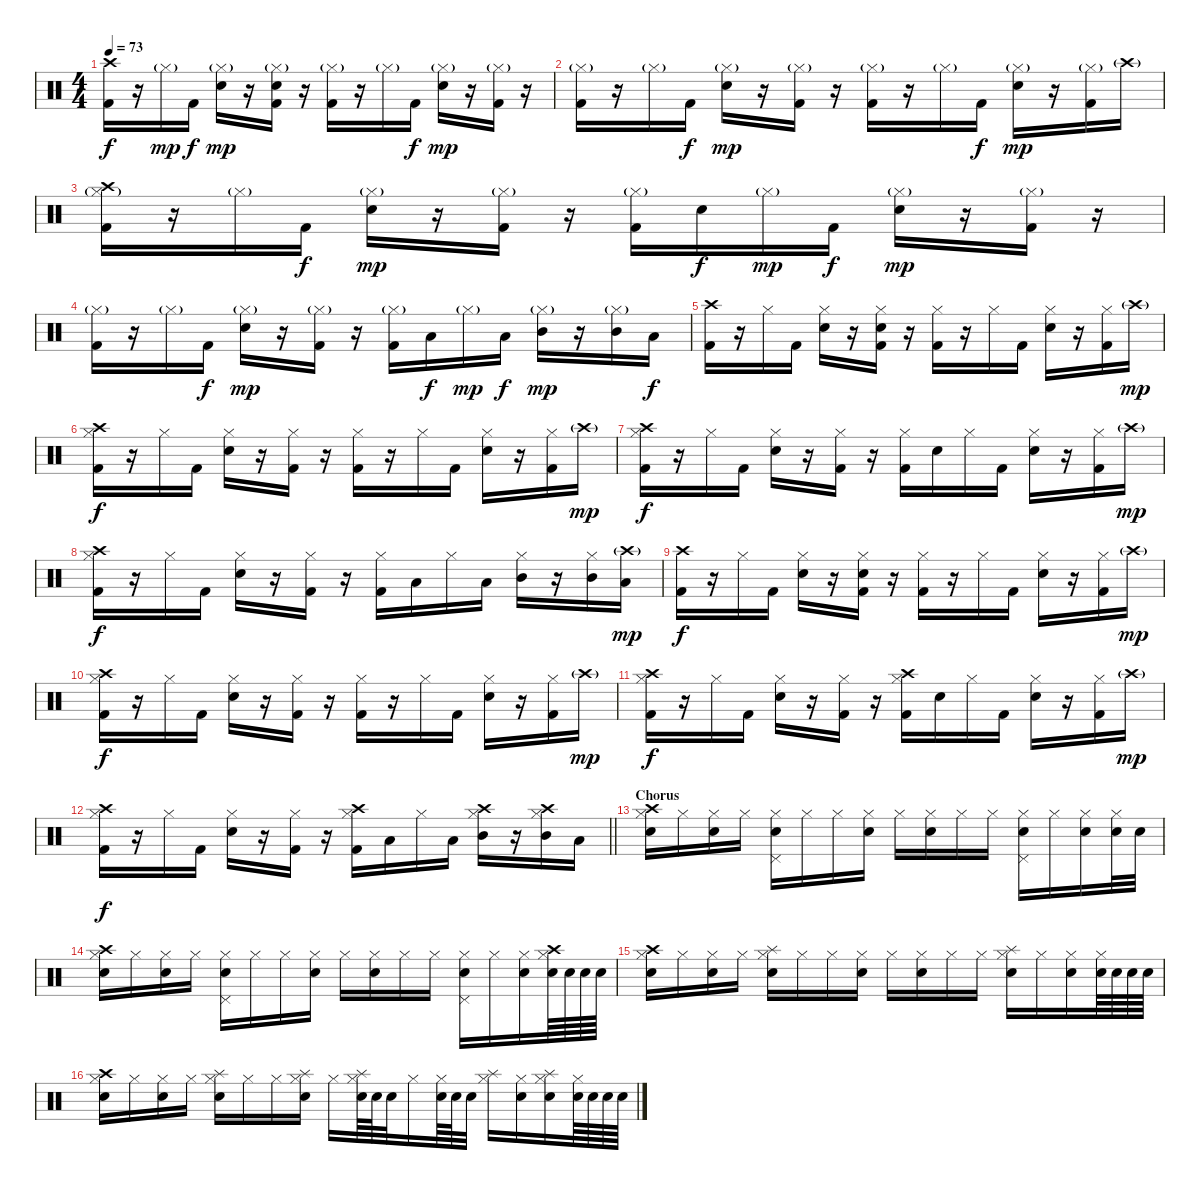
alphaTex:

\track "" {instrument percussion}
\staff {score}
\articulation defaults
\ts (4 4)
\tempo 73
\clef neutral
\ks c
("Crash high (hit)" "Kick (hit) 2").16{dy f} r.16 "Hi-Hat (closed)"{g}.16{dy mp} "Kick (hit) 2".16{dy f} ("Hi-Hat (closed)"{g} "Snare (hit) 2").16{dy mp} r.16 ("Metronome (bell)" "Hi-Hat (closed)"{g} "Kick (hit) 2").16 r.16 ("Hi-Hat (closed)"{g} "Kick (hit) 2").16 r.16 "Hi-Hat (closed)"{g}.16 "Kick (hit) 2".16{dy f} ("Hi-Hat (closed)"{g} "Snare (hit) 2").16{dy mp} r.16 ("Hi-Hat (closed)"{g} "Kick (hit) 2").16 r.16 |
("Hi-Hat (closed)"{g} "Kick (hit) 2").16 r.16 "Hi-Hat (closed)"{g}.16 "Kick (hit) 2".16{dy f} ("Hi-Hat (closed)"{g} "Snare (hit) 2").16{dy mp} r.16 ("Hi-Hat (closed)"{g} "Kick (hit) 2").16 r.16 ("Hi-Hat (closed)"{g} "Kick (hit) 2").16 r.16 "Hi-Hat (closed)"{g}.16 "Kick (hit) 2".16{dy f} ("Hi-Hat (closed)"{g} "Snare (hit) 2").16{dy mp} r.16 ("Hi-Hat (closed)"{g} "Kick (hit) 2").16 "Crash high (hit)"{g}.16 |
("Crash high (hit)" "Hi-Hat (closed)"{g} "Kick (hit) 2").16 r.16 "Hi-Hat (closed)"{g}.16 "Kick (hit) 2".16{dy f} ("Hi-Hat (closed)"{g} "Snare (hit) 2").16{dy mp} r.16 ("Hi-Hat (closed)"{g} "Kick (hit) 2").16 r.16 ("Hi-Hat (closed)"{g} "Kick (hit) 2").16 "Snare (hit) 2".16{dy f} "Hi-Hat (closed)"{g}.16{dy mp} "Kick (hit) 2".16{dy f} ("Hi-Hat (closed)"{g} "Snare (hit) 2").16{dy mp} r.16 ("Hi-Hat (closed)"{g} "Kick (hit) 2").16 r.16 |
("Hi-Hat (closed)"{g} "Kick (hit) 2").16 r.16 "Hi-Hat (closed)"{g}.16 "Kick (hit) 2".16{dy f} ("Hi-Hat (closed)"{g} "Snare (hit) 2").16{dy mp} r.16 ("Hi-Hat (closed)"{g} "Kick (hit) 2").16 r.16 ("Hi-Hat (closed)"{g} "Kick (hit) 2").16 "Low Floor Tom (hit)".16{dy f} "Hi-Hat (closed)"{g}.16{dy mp} "Low Tom (hit)".16{dy f} ("Hi-Hat (closed)"{g} "Mid Tom (hit)").16{dy mp} r.16 ("Hi-Hat (closed)"{g} "Mid Tom (hit)").16 "Low Tom (hit)".16{dy f} |
("Crash high (hit)" "Kick (hit) 2").16{volume 16} r.16 "Hi-Hat (closed)".16 "Kick (hit) 2".16 ("Hi-Hat (closed)" "Snare (hit) 2").16 r.16 ("Metronome (bell)" "Hi-Hat (closed)" "Kick (hit) 2").16 r.16 ("Hi-Hat (closed)" "Kick (hit) 2").16 r.16 "Hi-Hat (closed)".16 "Kick (hit) 2".16 ("Hi-Hat (closed)" "Snare (hit) 2").16 r.16 ("Hi-Hat (closed)" "Kick (hit) 2").16 "Crash high (hit)"{g}.16{dy mp} |
("Crash high (hit)" "Hi-Hat (closed)" "Kick (hit) 2").16{dy f} r.16 "Hi-Hat (closed)".16 "Kick (hit) 2".16 ("Hi-Hat (closed)" "Snare (hit) 2").16 r.16 ("Hi-Hat (closed)" "Kick (hit) 2").16 r.16 ("Hi-Hat (closed)" "Kick (hit) 2").16 r.16 "Hi-Hat (closed)".16 "Kick (hit) 2".16 ("Hi-Hat (closed)" "Snare (hit) 2").16 r.16 ("Hi-Hat (closed)" "Kick (hit) 2").16 "Crash high (hit)"{g}.16{dy mp} |
("Crash high (hit)" "Hi-Hat (closed)" "Kick (hit) 2").16{dy f} r.16 "Hi-Hat (closed)".16 "Kick (hit) 2".16 ("Hi-Hat (closed)" "Snare (hit) 2").16 r.16 ("Hi-Hat (closed)" "Kick (hit) 2").16 r.16 ("Hi-Hat (closed)" "Kick (hit) 2").16 "Snare (hit) 2".16 "Hi-Hat (closed)".16 "Kick (hit) 2".16 ("Hi-Hat (closed)" "Snare (hit) 2").16 r.16 ("Hi-Hat (closed)" "Kick (hit) 2").16 "Crash high (hit)"{g}.16{dy mp} |
("Crash high (hit)" "Hi-Hat (closed)" "Kick (hit) 2").16{dy f} r.16 "Hi-Hat (closed)".16 "Kick (hit) 2".16 ("Hi-Hat (closed)" "Snare (hit) 2").16 r.16 ("Hi-Hat (closed)" "Kick (hit) 2").16 r.16 ("Hi-Hat (closed)" "Kick (hit) 2").16 "Low Floor Tom (hit)".16 "Hi-Hat (closed)".16 "Low Tom (hit)".16 ("Hi-Hat (closed)" "Mid Tom (hit)").16 r.16 ("Hi-Hat (closed)" "Mid Tom (hit)").16 ("Crash high (hit)"{g} "Low Tom (hit)").16{dy mp} |
("Crash high (hit)" "Kick (hit) 2").16{dy f} r.16 "Hi-Hat (closed)".16 "Kick (hit) 2".16 ("Hi-Hat (closed)" "Snare (hit) 2").16 r.16 ("Metronome (bell)" "Hi-Hat (closed)" "Kick (hit) 2").16 r.16 ("Hi-Hat (closed)" "Kick (hit) 2").16 r.16 "Hi-Hat (closed)".16 "Kick (hit) 2".16 ("Hi-Hat (closed)" "Snare (hit) 2").16 r.16 ("Hi-Hat (closed)" "Kick (hit) 2").16 "Crash high (hit)"{g}.16{dy mp} |
("Crash high (hit)" "Hi-Hat (closed)" "Kick (hit) 2").16{dy f} r.16 "Hi-Hat (closed)".16 "Kick (hit) 2".16 ("Hi-Hat (closed)" "Snare (hit) 2").16 r.16 ("Hi-Hat (closed)" "Kick (hit) 2").16 r.16 ("Hi-Hat (closed)" "Kick (hit) 2").16 r.16 "Hi-Hat (closed)".16 "Kick (hit) 2".16 ("Hi-Hat (closed)" "Snare (hit) 2").16 r.16 ("Hi-Hat (closed)" "Kick (hit) 2").16 "Crash high (hit)"{g}.16{dy mp} |
("Crash high (hit)" "Hi-Hat (closed)" "Kick (hit) 2").16{dy f} r.16 "Hi-Hat (closed)".16 "Kick (hit) 2".16 ("Hi-Hat (closed)" "Snare (hit) 2").16 r.16 ("Hi-Hat (closed)" "Kick (hit) 2").16 r.16 ("Crash high (hit)" "Hi-Hat (closed)" "Kick (hit) 2").16 "Snare (hit) 2".16 "Hi-Hat (closed)".16 "Kick (hit) 2".16 ("Hi-Hat (closed)" "Snare (hit) 2").16 r.16 ("Hi-Hat (closed)" "Kick (hit) 2").16 "Crash high (hit)"{g}.16{dy mp} |
\barLineRight lightlight
("Crash high (hit)" "Hi-Hat (closed)" "Kick (hit) 2").16{dy f} r.16 "Hi-Hat (closed)".16 "Kick (hit) 2".16 ("Hi-Hat (closed)" "Snare (hit) 2").16 r.16 ("Hi-Hat (closed)" "Kick (hit) 2").16 r.16 ("Crash high (hit)" "Hi-Hat (closed)" "Kick (hit) 2").16 "Low Floor Tom (hit)".16 "Hi-Hat (closed)".16 "Low Tom (hit)".16 ("Crash high (hit)" "Hi-Hat (closed)" "Mid Tom (hit)").16 r.16 ("Crash high (hit)" "Hi-Hat (closed)" "Mid Tom (hit)").16 "Low Tom (hit)".16 |
\section ("" "Chorus")
("Crash high (hit)" "Hi-Hat (closed)" "Snare (hit) 2").16{volume 14} "Hi-Hat (closed)".16 ("Hi-Hat (closed)" "Snare (hit) 2").16 "Hi-Hat (closed)".16 ("Pedal Hi-Hat (hit)" "Hi-Hat (closed)" "Snare (hit) 2").16 "Hi-Hat (closed)".16 "Hi-Hat (closed)".16 ("Hi-Hat (closed)" "Snare (hit) 2").16 "Hi-Hat (closed)".16 ("Hi-Hat (closed)" "Snare (hit) 2").16 "Hi-Hat (closed)".16 "Hi-Hat (closed)".16 ("Pedal Hi-Hat (hit)" "Hi-Hat (closed)" "Snare (hit) 2").16 "Hi-Hat (closed)".16 ("Hi-Hat (closed)" "Snare (hit) 2").16 ("Hi-Hat (closed)" "Snare (hit) 2").32 "Snare (hit) 2".32 |
("Crash high (hit)" "Hi-Hat (closed)" "Snare (hit) 2").16 "Hi-Hat (closed)".16 ("Hi-Hat (closed)" "Snare (hit) 2").16 "Hi-Hat (closed)".16 ("Pedal Hi-Hat (hit)" "Hi-Hat (closed)" "Snare (hit) 2").16 "Hi-Hat (closed)".16 "Hi-Hat (closed)".16 ("Hi-Hat (closed)" "Snare (hit) 2").16 "Hi-Hat (closed)".16 ("Hi-Hat (closed)" "Snare (hit) 2").16 "Hi-Hat (closed)".16 "Hi-Hat (closed)".16 ("Pedal Hi-Hat (hit)" "Hi-Hat (closed)" "Snare (hit) 2").16 "Hi-Hat (closed)".16 ("Hi-Hat (closed)" "Snare (hit) 2").16 ("Crash high (hit)" "Hi-Hat (closed)" "Snare (hit) 2").64 "Snare (hit) 2".64 "Snare (hit) 2".64 "Snare (hit) 2".64 |
("Crash high (hit)" "Hi-Hat (closed)" "Snare (hit) 2").16 "Hi-Hat (closed)".16 ("Hi-Hat (closed)" "Snare (hit) 2").16 "Hi-Hat (closed)".16 ("Splash (hit)" "Hi-Hat (closed)" "Snare (hit) 2").16 "Hi-Hat (closed)".16 "Hi-Hat (closed)".16 ("Hi-Hat (closed)" "Snare (hit) 2").16 "Hi-Hat (closed)".16 ("Hi-Hat (closed)" "Snare (hit) 2").16 "Hi-Hat (closed)".16 "Hi-Hat (closed)".16 ("Splash (hit)" "Hi-Hat (closed)" "Snare (hit) 2").16 "Hi-Hat (closed)".16 ("Hi-Hat (closed)" "Snare (hit) 2").16 ("Hi-Hat (closed)" "Snare (hit) 2").64 "Snare (hit) 2".64 "Snare (hit) 2".64 "Snare (hit) 2".64 |
("Crash high (hit)" "Hi-Hat (closed)" "Snare (hit) 2").16 "Hi-Hat (closed)".16 ("Hi-Hat (closed)" "Snare (hit) 2").16 "Hi-Hat (closed)".16 ("Splash (hit)" "Hi-Hat (closed)" "Snare (hit) 2").16 "Hi-Hat (closed)".16 "Hi-Hat (closed)".16 ("Splash (hit)" "Hi-Hat (closed)" "Snare (hit) 2").16 "Hi-Hat (closed)".16 ("Splash (hit)" "Hi-Hat (closed)" "Snare (hit) 2").64 "Snare (hit) 2".64 "Snare (hit) 2".32 "Hi-Hat (closed)".16 ("Hi-Hat (closed)" "Snare (hit) 2").64 "Snare (hit) 2".64 "Snare (hit) 2".32 ("Splash (hit)" "Hi-Hat (closed)").16 ("Hi-Hat (closed)" "Snare (hit) 2").16 ("Splash (hit)" "Hi-Hat (closed)" "Snare (hit) 2").16 ("Hi-Hat (closed)" "Snare (hit) 2").64 "Snare (hit) 2".64 "Snare (hit) 2".64 "Snare (hit) 2".64
